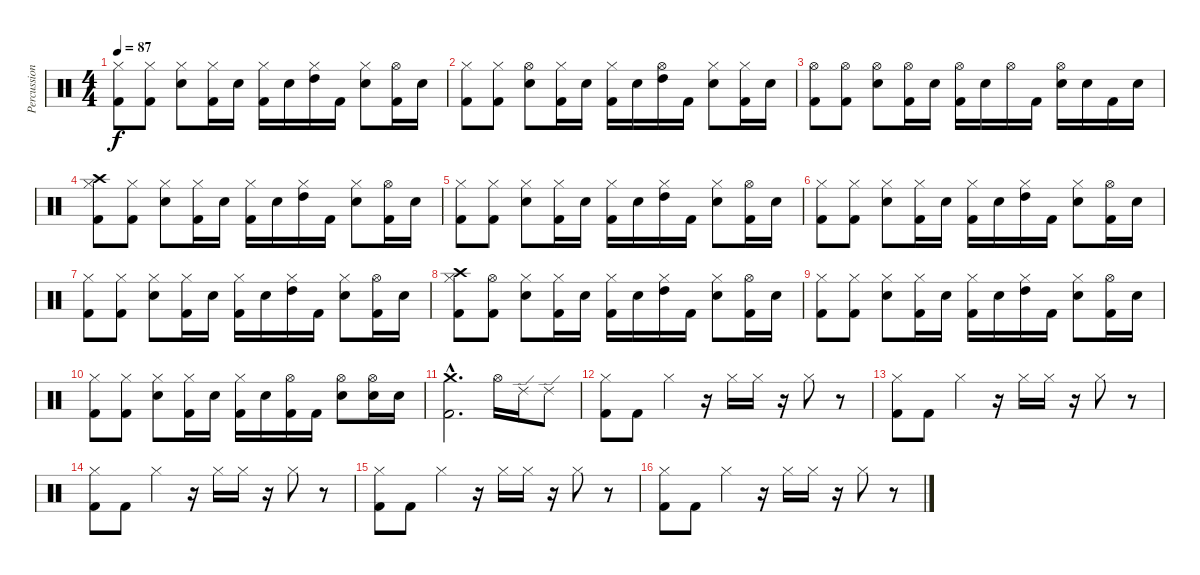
\track ("Percussions" "Percussion") {instrument percussion}
\staff {score}
\articulation defaults
\ts (4 4)
\tempo 87
\clef neutral
\ks c
("Hi-Hat (closed)" "Kick (hit) 2").8{dy f} ("Hi-Hat (closed)" "Kick (hit) 2").8 ("Hi-Hat (closed)" "Electric Snare (hit)").8 ("Hi-Hat (closed)" "Kick (hit) 2").16 "Electric Snare (hit)".16 ("Hi-Hat (closed)" "Kick (hit) 2").16 "Electric Snare (hit)".16 ("Hi-Hat (closed)" "High Tom (hit)").16 "Kick (hit) 2".16 ("Hi-Hat (closed)" "Electric Snare (hit)").8 ("Hi-Hat (open)" "Kick (hit) 2").16 "Electric Snare (hit)".16 |
("Hi-Hat (closed)" "Kick (hit) 2").8 ("Hi-Hat (closed)" "Kick (hit) 2").8 ("Hi-Hat (open)" "Electric Snare (hit)").8 ("Hi-Hat (closed)" "Kick (hit) 2").16 "Electric Snare (hit)".16 ("Hi-Hat (closed)" "Kick (hit) 2").16 "Electric Snare (hit)".16 ("Hi-Hat (open)" "High Tom (hit)").16 "Kick (hit) 2".16 ("Hi-Hat (closed)" "Electric Snare (hit)").8 ("Hi-Hat (closed)" "Kick (hit) 2").16 "Electric Snare (hit)".16 |
("Hi-Hat (open)" "Kick (hit) 2").8 ("Hi-Hat (open)" "Kick (hit) 2").8 ("Hi-Hat (open)" "Electric Snare (hit)").8 ("Hi-Hat (open)" "Kick (hit) 2").16 "Electric Snare (hit)".16 ("Hi-Hat (open)" "Kick (hit) 2").16 "Electric Snare (hit)".16 "Hi-Hat (open)".16 "Kick (hit) 2".16 ("Hi-Hat (open)" "Electric Snare (hit)").16 "Electric Snare (hit)".16 "Kick (hit) 2".16 "Electric Snare (hit)".16 |
("Crash high (hit)" "Hi-Hat (closed)" "Kick (hit) 2").8 ("Hi-Hat (closed)" "Kick (hit) 2").8 ("Hi-Hat (closed)" "Electric Snare (hit)").8 ("Hi-Hat (closed)" "Kick (hit) 2").16 "Electric Snare (hit)".16 ("Hi-Hat (closed)" "Kick (hit) 2").16 "Electric Snare (hit)".16 ("Hi-Hat (closed)" "High Tom (hit)").16 "Kick (hit) 2".16 ("Hi-Hat (closed)" "Electric Snare (hit)").8 ("Hi-Hat (open)" "Kick (hit) 2").16 "Electric Snare (hit)".16 |
("Hi-Hat (closed)" "Kick (hit) 2").8 ("Hi-Hat (closed)" "Kick (hit) 2").8 ("Hi-Hat (closed)" "Electric Snare (hit)").8 ("Hi-Hat (closed)" "Kick (hit) 2").16 "Electric Snare (hit)".16 ("Hi-Hat (closed)" "Kick (hit) 2").16 "Electric Snare (hit)".16 ("Hi-Hat (closed)" "High Tom (hit)").16 "Kick (hit) 2".16 ("Hi-Hat (closed)" "Electric Snare (hit)").8 ("Hi-Hat (open)" "Kick (hit) 2").16 "Electric Snare (hit)".16 |
("Hi-Hat (closed)" "Kick (hit) 2").8 ("Hi-Hat (closed)" "Kick (hit) 2").8 ("Hi-Hat (closed)" "Electric Snare (hit)").8 ("Hi-Hat (closed)" "Kick (hit) 2").16 "Electric Snare (hit)".16 ("Hi-Hat (closed)" "Kick (hit) 2").16 "Electric Snare (hit)".16 ("Hi-Hat (closed)" "High Tom (hit)").16 "Kick (hit) 2".16 ("Hi-Hat (closed)" "Electric Snare (hit)").8 ("Hi-Hat (open)" "Kick (hit) 2").16 "Electric Snare (hit)".16 |
("Hi-Hat (closed)" "Kick (hit) 2").8 ("Hi-Hat (closed)" "Kick (hit) 2").8 ("Hi-Hat (closed)" "Electric Snare (hit)").8 ("Hi-Hat (closed)" "Kick (hit) 2").16 "Electric Snare (hit)".16 ("Hi-Hat (closed)" "Kick (hit) 2").16 "Electric Snare (hit)".16 ("Hi-Hat (closed)" "High Tom (hit)").16 "Kick (hit) 2".16 ("Hi-Hat (closed)" "Electric Snare (hit)").8 ("Hi-Hat (open)" "Kick (hit) 2").16 "Electric Snare (hit)".16 |
("Crash high (hit)" "Hi-Hat (closed)" "Kick (hit) 2").8 ("Hi-Hat (open)" "Kick (hit) 2").8 ("Hi-Hat (closed)" "Electric Snare (hit)").8 ("Hi-Hat (closed)" "Kick (hit) 2").16 "Electric Snare (hit)".16 ("Hi-Hat (closed)" "Kick (hit) 2").16 "Electric Snare (hit)".16 ("Hi-Hat (closed)" "High Tom (hit)").16 "Kick (hit) 2".16 ("Hi-Hat (closed)" "Electric Snare (hit)").8 ("Hi-Hat (open)" "Kick (hit) 2").16 "Electric Snare (hit)".16 |
("Hi-Hat (closed)" "Kick (hit) 2").8 ("Hi-Hat (closed)" "Kick (hit) 2").8 ("Hi-Hat (closed)" "Electric Snare (hit)").8 ("Hi-Hat (closed)" "Kick (hit) 2").16 "Electric Snare (hit)".16 ("Hi-Hat (closed)" "Kick (hit) 2").16 "Electric Snare (hit)".16 ("Hi-Hat (closed)" "High Tom (hit)").16 "Kick (hit) 2".16 ("Hi-Hat (closed)" "Electric Snare (hit)").8 ("Hi-Hat (open)" "Kick (hit) 2").16 "Electric Snare (hit)".16 |
("Hi-Hat (closed)" "Kick (hit) 2").8 ("Hi-Hat (closed)" "Kick (hit) 2").8 ("Hi-Hat (closed)" "Electric Snare (hit)").8 ("Hi-Hat (closed)" "Kick (hit) 2").16 "Electric Snare (hit)".16 ("Hi-Hat (closed)" "Kick (hit) 2").16 "Electric Snare (hit)".16 ("Hi-Hat (open)" "Kick (hit) 2").16 "Kick (hit) 2".16 ("Hi-Hat (open)" "Electric Snare (hit)").8 ("Hi-Hat (open)" "Electric Snare (hit)").16 "Electric Snare (hit)".16 |
("Crash medium (hit)"{hac} "Kick (hit) 2"{hac}).2{d} "Hi-Hat (open)".16 "Ride (edge) 2".16 "Ride (edge) 2".8 |
("Hi-Hat (closed)" "Kick (hit) 2").8 "Kick (hit) 2".8 "Hi-Hat (closed)".4 r.16 "Hi-Hat (closed)".16 "Hi-Hat (closed)".16 r.16 "Hi-Hat (closed)".8 r.8 |
("Hi-Hat (closed)" "Kick (hit) 2").8 "Kick (hit) 2".8 "Hi-Hat (closed)".4 r.16 "Hi-Hat (closed)".16 "Hi-Hat (closed)".16 r.16 "Hi-Hat (closed)".8 r.8 |
("Hi-Hat (closed)" "Kick (hit) 2").8 "Kick (hit) 2".8 "Hi-Hat (closed)".4 r.16 "Hi-Hat (closed)".16 "Hi-Hat (closed)".16 r.16 "Hi-Hat (closed)".8 r.8 |
("Hi-Hat (closed)" "Kick (hit) 2").8 "Kick (hit) 2".8 "Hi-Hat (closed)".4 r.16 "Hi-Hat (closed)".16 "Hi-Hat (closed)".16 r.16 "Hi-Hat (closed)".8 r.8 |
("Hi-Hat (closed)" "Kick (hit) 2").8 "Kick (hit) 2".8 "Hi-Hat (closed)".4 r.16 "Hi-Hat (closed)".16 "Hi-Hat (closed)".16 r.16 "Hi-Hat (closed)".8 r.8
